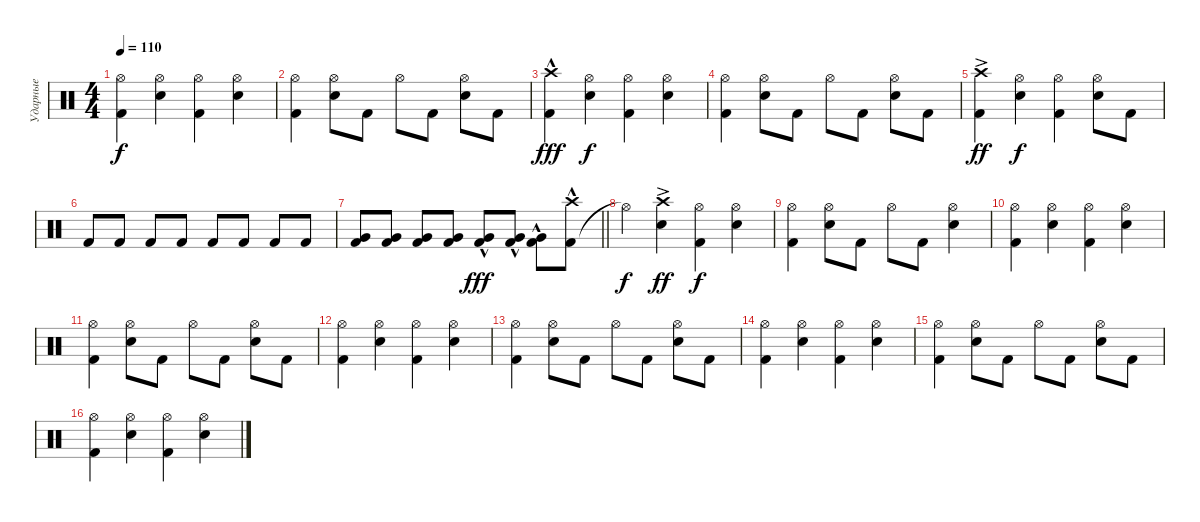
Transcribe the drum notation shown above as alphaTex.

\track ("Ударные" "Ударные") {instrument percussion}
\staff {score}
\articulation defaults
\ts (4 4)
\tempo 110
\clef neutral
\ks c
("Kick (hit) 2" "Hi-Hat (open)").4{dy f} ("Snare (hit) 2" "Hi-Hat (open)").4 ("Kick (hit) 2" "Hi-Hat (open)").4 ("Snare (hit) 2" "Hi-Hat (open)").4 |
("Kick (hit) 2" "Hi-Hat (open)").4 ("Snare (hit) 2" "Hi-Hat (open)").8 "Kick (hit) 2".8 "Hi-Hat (open)".8 "Kick (hit) 2".8 ("Snare (hit) 2" "Hi-Hat (open)").8 "Kick (hit) 2".8 |
("Kick (hit) 2" "Crash high (hit)"{hac}).4{dy fff} ("Snare (hit) 2" "Hi-Hat (open)").4{dy f} ("Kick (hit) 2" "Hi-Hat (open)").4 ("Snare (hit) 2" "Hi-Hat (open)").4 |
("Kick (hit) 2" "Hi-Hat (open)").4 ("Snare (hit) 2" "Hi-Hat (open)").8 "Kick (hit) 2".8 "Hi-Hat (open)".8 "Kick (hit) 2".8 ("Snare (hit) 2" "Hi-Hat (open)").8 "Kick (hit) 2".8 |
("Kick (hit) 2" "Crash high (hit)"{ac}).4{dy ff} ("Snare (hit) 2" "Hi-Hat (open)").4{dy f} ("Kick (hit) 2" "Hi-Hat (open)").4 ("Snare (hit) 2" "Hi-Hat (open)").8 "Kick (hit) 2".8 |
"Kick (hit) 2".8 "Kick (hit) 2".8 "Kick (hit) 2".8 "Kick (hit) 2".8 "Kick (hit) 2".8 "Kick (hit) 2".8 "Kick (hit) 2".8 "Kick (hit) 2".8 |
\barLineRight lightlight
("Kick (hit) 2" "Very Low Tom (hit)").8 ("Kick (hit) 2" "Very Low Tom (hit)").8 ("Kick (hit) 2" "Very Low Tom (hit)").8 ("Kick (hit) 2" "Very Low Tom (hit)").8 ("Kick (hit) 2" "Very Low Tom (hit)"{hac}).8{dy fff} ("Kick (hit) 2" "Very Low Tom (hit)"{hac}).8 ("Kick (hit) 2" "Very Low Tom (hit)"{hac}).8 ("Kick (hit) 2" "Crash high (hit)"{hac}).8 |
"Hi-Hat (open)"{t}.4{dy f} ("Snare (hit) 2" "Crash high (hit)"{ac}).4{dy ff} ("Kick (hit) 2" "Hi-Hat (open)").4{dy f} ("Snare (hit) 2" "Hi-Hat (open)").4 |
("Kick (hit) 2" "Hi-Hat (open)").4 ("Snare (hit) 2" "Hi-Hat (open)").8 "Kick (hit) 2".8 "Hi-Hat (open)".8 "Kick (hit) 2".8 ("Snare (hit) 2" "Hi-Hat (open)").4 |
("Kick (hit) 2" "Hi-Hat (open)").4 ("Snare (hit) 2" "Hi-Hat (open)").4 ("Kick (hit) 2" "Hi-Hat (open)").4 ("Snare (hit) 2" "Hi-Hat (open)").4 |
("Kick (hit) 2" "Hi-Hat (open)").4 ("Snare (hit) 2" "Hi-Hat (open)").8 "Kick (hit) 2".8 "Hi-Hat (open)".8 "Kick (hit) 2".8 ("Snare (hit) 2" "Hi-Hat (open)").8 "Kick (hit) 2".8 |
("Kick (hit) 2" "Hi-Hat (open)").4 ("Snare (hit) 2" "Hi-Hat (open)").4 ("Kick (hit) 2" "Hi-Hat (open)").4 ("Snare (hit) 2" "Hi-Hat (open)").4 |
("Kick (hit) 2" "Hi-Hat (open)").4 ("Snare (hit) 2" "Hi-Hat (open)").8 "Kick (hit) 2".8 "Hi-Hat (open)".8 "Kick (hit) 2".8 ("Snare (hit) 2" "Hi-Hat (open)").8 "Kick (hit) 2".8 |
("Kick (hit) 2" "Hi-Hat (open)").4 ("Snare (hit) 2" "Hi-Hat (open)").4 ("Kick (hit) 2" "Hi-Hat (open)").4 ("Snare (hit) 2" "Hi-Hat (open)").4 |
("Kick (hit) 2" "Hi-Hat (open)").4 ("Snare (hit) 2" "Hi-Hat (open)").8 "Kick (hit) 2".8 "Hi-Hat (open)".8 "Kick (hit) 2".8 ("Snare (hit) 2" "Hi-Hat (open)").8 "Kick (hit) 2".8 |
("Kick (hit) 2" "Hi-Hat (open)").4 ("Snare (hit) 2" "Hi-Hat (open)").4 ("Kick (hit) 2" "Hi-Hat (open)").4 ("Snare (hit) 2" "Hi-Hat (open)").4
